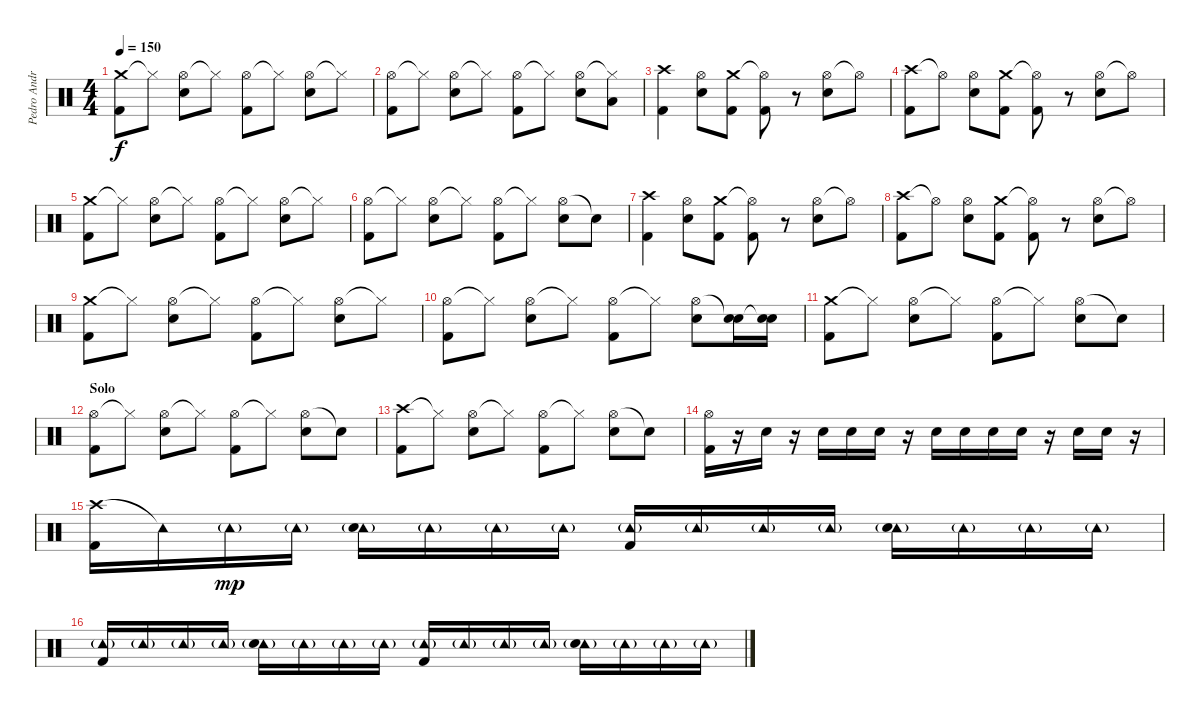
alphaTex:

\track ("Pedro Andreu" "Pedro Andr") {instrument percussion}
\staff {score}
\articulation defaults
\ts (4 4)
\tempo 150
\clef neutral
\ks c
("Crash medium (hit)" "Kick (hit) 2").8{dy f} "Hi-Hat (closed)"{t}.8 ("Hi-Hat (open)" "Snare (hit) 2").8 "Hi-Hat (closed)"{t}.8 ("Hi-Hat (open)" "Kick (hit) 2").8 "Hi-Hat (closed)"{t}.8 ("Hi-Hat (open)" "Snare (hit) 2").8 "Hi-Hat (closed)"{t}.8 |
("Hi-Hat (open)" "Kick (hit) 2").8 "Hi-Hat (closed)"{t}.8 ("Hi-Hat (open)" "Snare (hit) 2").8 "Hi-Hat (closed)"{t}.8 ("Hi-Hat (open)" "Kick (hit) 2").8 "Hi-Hat (closed)"{t}.8 ("Hi-Hat (open)" "Snare (hit) 2").8 ("Hi-Hat (closed)"{t} "Low Tom (hit)").8 |
("Crash high (hit)" "Kick (hit) 2").4 ("Hi-Hat (open)" "Snare (hit) 2").8 ("Crash medium (hit)" "Kick (hit) 2").8 ("Hi-Hat (open)"{t} "Kick (hit) 2").8 r.8 ("Hi-Hat (open)" "Snare (hit) 2").8 "Hi-Hat (open)"{t}.8 |
("Crash high (hit)" "Kick (hit) 2").8 "Hi-Hat (open)"{t}.8 ("Hi-Hat (open)" "Snare (hit) 2").8 ("Crash medium (hit)" "Kick (hit) 2").8 ("Hi-Hat (open)"{t} "Kick (hit) 2").8 r.8 ("Hi-Hat (open)" "Snare (hit) 2").8 "Hi-Hat (open)"{t}.8 |
("Crash medium (hit)" "Kick (hit) 2").8 "Hi-Hat (closed)"{t}.8 ("Hi-Hat (open)" "Snare (hit) 2").8 "Hi-Hat (closed)"{t}.8 ("Hi-Hat (open)" "Kick (hit) 2").8 "Hi-Hat (closed)"{t}.8 ("Hi-Hat (open)" "Snare (hit) 2").8 "Hi-Hat (closed)"{t}.8 |
("Hi-Hat (open)" "Kick (hit) 2").8 "Hi-Hat (closed)"{t}.8 ("Hi-Hat (open)" "Snare (hit) 2").8 "Hi-Hat (closed)"{t}.8 ("Hi-Hat (open)" "Kick (hit) 2").8 "Hi-Hat (closed)"{t}.8 ("Hi-Hat (open)" "Snare (hit) 2").8 "Snare (hit)"{t}.8 |
("Crash high (hit)" "Kick (hit) 2").4 ("Hi-Hat (open)" "Snare (hit) 2").8 ("Crash medium (hit)" "Kick (hit) 2").8 ("Hi-Hat (open)"{t} "Kick (hit) 2").8 r.8 ("Hi-Hat (open)" "Snare (hit) 2").8 "Hi-Hat (open)"{t}.8 |
("Crash high (hit)" "Kick (hit) 2").8 "Hi-Hat (open)"{t}.8 ("Hi-Hat (open)" "Snare (hit) 2").8 ("Crash medium (hit)" "Kick (hit) 2").8 ("Hi-Hat (open)"{t} "Kick (hit) 2").8 r.8 ("Hi-Hat (open)" "Snare (hit) 2").8 "Hi-Hat (open)"{t}.8 |
("Crash medium (hit)" "Kick (hit) 2").8 "Hi-Hat (closed)"{t}.8 ("Hi-Hat (open)" "Snare (hit) 2").8 "Hi-Hat (closed)"{t}.8 ("Hi-Hat (open)" "Kick (hit) 2").8 "Hi-Hat (closed)"{t}.8 ("Hi-Hat (open)" "Snare (hit) 2").8 "Hi-Hat (closed)"{t}.8 |
("Hi-Hat (open)" "Kick (hit) 2").8 "Hi-Hat (closed)"{t}.8 ("Hi-Hat (open)" "Snare (hit) 2").8 "Hi-Hat (closed)"{t}.8 ("Hi-Hat (open)" "Kick (hit) 2").8 "Hi-Hat (closed)"{t}.8 ("Hi-Hat (open)" "Snare (hit) 2").8 ("Snare (hit)"{t} "Snare (hit) 2").16 ("Snare (hit)"{t} "Snare (hit) 2").16 |
("Crash medium (hit)" "Kick (hit) 2").8 "Hi-Hat (closed)"{t}.8 ("Hi-Hat (open)" "Snare (hit) 2").8 "Hi-Hat (closed)"{t}.8 ("Hi-Hat (open)" "Kick (hit) 2").8 "Hi-Hat (closed)"{t}.8 ("Hi-Hat (open)" "Snare (hit) 2").8 "Snare (hit)"{t}.8 |
\section ("" "Solo")
("Hi-Hat (open)" "Kick (hit) 2").8 "Hi-Hat (closed)"{t}.8 ("Hi-Hat (open)" "Snare (hit) 2").8 "Hi-Hat (closed)"{t}.8 ("Hi-Hat (open)" "Kick (hit) 2").8 "Hi-Hat (closed)"{t}.8 ("Hi-Hat (open)" "Snare (hit) 2").8 "Snare (hit)"{t}.8 |
("Crash high (hit)" "Kick (hit) 2").8 "Hi-Hat (closed)"{t}.8 ("Hi-Hat (open)" "Snare (hit) 2").8 "Hi-Hat (closed)"{t}.8 ("Hi-Hat (open)" "Kick (hit) 2").8 "Hi-Hat (closed)"{t}.8 ("Hi-Hat (open)" "Snare (hit) 2").8 "Snare (hit)"{t}.8 |
("Hi-Hat (open)" "Kick (hit) 2").16 r.16 "Snare (hit) 2".16 r.16 "Snare (hit) 2".16 "Snare (hit) 2".16 "Snare (hit) 2".16 r.16 "Snare (hit) 2".16 "Snare (hit) 2".16 "Snare (hit) 2".16 "Snare (hit) 2".16 r.16 "Snare (hit) 2".16 "Snare (hit) 2".16 r.16 |
("Crash high (hit)" "Kick (hit) 2").16 "Tambourine (hit)"{t}.16 "Tambourine (hit)"{g}.16{dy mp} "Tambourine (hit)"{g}.16 ("Tambourine (hit)"{g} "Snare (hit) 2").16 "Tambourine (hit)"{g}.16 "Tambourine (hit)"{g}.16 "Tambourine (hit)"{g}.16 ("Tambourine (hit)"{g} "Kick (hit) 2").16 "Tambourine (hit)"{g}.16 "Tambourine (hit)"{g}.16 "Tambourine (hit)"{g}.16 ("Tambourine (hit)"{g} "Snare (hit) 2").16 "Tambourine (hit)"{g}.16 "Tambourine (hit)"{g}.16 "Tambourine (hit)"{g}.16 |
("Tambourine (hit)"{g} "Kick (hit) 2").16 "Tambourine (hit)"{g}.16 "Tambourine (hit)"{g}.16 "Tambourine (hit)"{g}.16 ("Tambourine (hit)"{g} "Snare (hit) 2").16 "Tambourine (hit)"{g}.16 "Tambourine (hit)"{g}.16 "Tambourine (hit)"{g}.16 ("Tambourine (hit)"{g} "Kick (hit) 2").16 "Tambourine (hit)"{g}.16 "Tambourine (hit)"{g}.16 "Tambourine (hit)"{g}.16 ("Tambourine (hit)"{g} "Snare (hit) 2").16 "Tambourine (hit)"{g}.16 "Tambourine (hit)"{g}.16 "Tambourine (hit)"{g}.16
